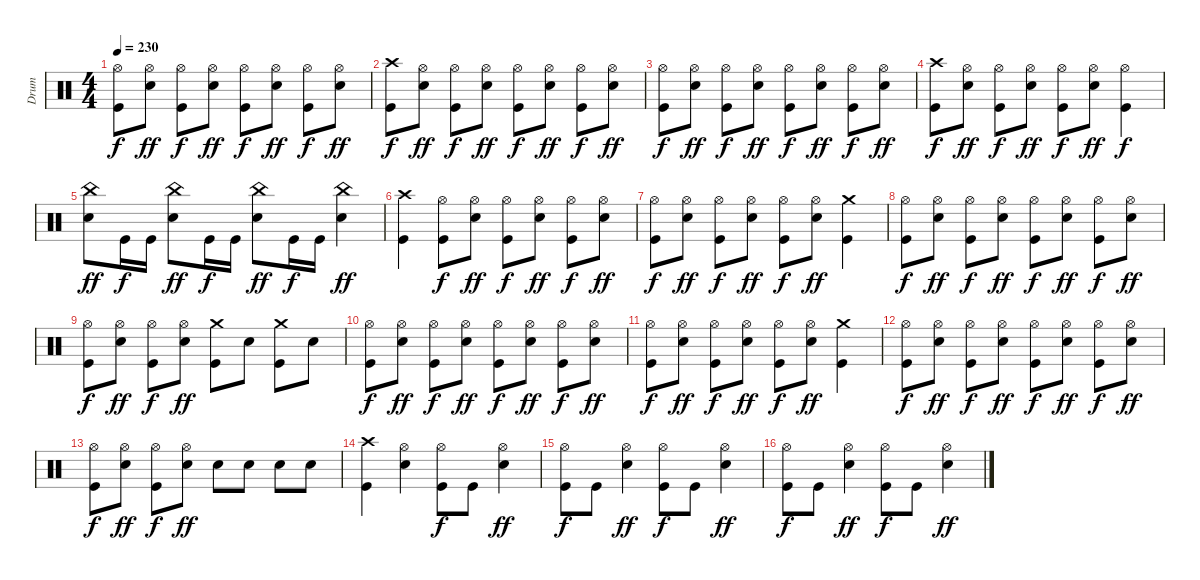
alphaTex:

\track ("Drum" "Drum") {instrument percussion}
\staff {score}
\articulation defaults
\ts (4 4)
\tempo 230
\clef neutral
\ks c
("Kick (hit)" "Hi-Hat (open)").8{dy f} ("Electric Snare (hit)" "Hi-Hat (open)").8{dy ff} ("Kick (hit)" "Hi-Hat (open)").8{dy f} ("Electric Snare (hit)" "Hi-Hat (open)").8{dy ff} ("Kick (hit)" "Hi-Hat (open)").8{dy f} ("Electric Snare (hit)" "Hi-Hat (open)").8{dy ff} ("Kick (hit)" "Hi-Hat (open)").8{dy f} ("Electric Snare (hit)" "Hi-Hat (open)").8{dy ff} |
("Kick (hit)" "Crash high (hit)").8{dy f} ("Electric Snare (hit)" "Hi-Hat (open)").8{dy ff} ("Kick (hit)" "Hi-Hat (open)").8{dy f} ("Electric Snare (hit)" "Hi-Hat (open)").8{dy ff} ("Kick (hit)" "Hi-Hat (open)").8{dy f} ("Electric Snare (hit)" "Hi-Hat (open)").8{dy ff} ("Kick (hit)" "Hi-Hat (open)").8{dy f} ("Electric Snare (hit)" "Hi-Hat (open)").8{dy ff} |
("Kick (hit)" "Hi-Hat (open)").8{dy f} ("Electric Snare (hit)" "Hi-Hat (open)").8{dy ff} ("Kick (hit)" "Hi-Hat (open)").8{dy f} ("Electric Snare (hit)" "Hi-Hat (open)").8{dy ff} ("Kick (hit)" "Hi-Hat (open)").8{dy f} ("Electric Snare (hit)" "Hi-Hat (open)").8{dy ff} ("Kick (hit)" "Hi-Hat (open)").8{dy f} ("Electric Snare (hit)" "Hi-Hat (open)").8{dy ff} |
("Kick (hit)" "Crash high (hit)").8{dy f} ("Electric Snare (hit)" "Hi-Hat (open)").8{dy ff} ("Kick (hit)" "Hi-Hat (open)").8{dy f} ("Electric Snare (hit)" "Hi-Hat (open)").8{dy ff} ("Kick (hit)" "Hi-Hat (open)").8{dy f} ("Electric Snare (hit)" "Hi-Hat (open)").8{dy ff} ("Kick (hit)" "Hi-Hat (open)").4{dy f} |
("Electric Snare (hit)" "China (hit)").8{dy ff} "Kick (hit)".16{dy f} "Kick (hit)".16 ("Electric Snare (hit)" "China (hit)").8{dy ff} "Kick (hit)".16{dy f} "Kick (hit)".16 ("Electric Snare (hit)" "China (hit)").8{dy ff} "Kick (hit)".16{dy f} "Kick (hit)".16 ("Electric Snare (hit)" "China (hit)").4{dy ff} |
("Kick (hit)" "Crash high (hit)").4 ("Kick (hit)" "Hi-Hat (open)").8{dy f} ("Electric Snare (hit)" "Hi-Hat (open)").8{dy ff} ("Kick (hit)" "Hi-Hat (open)").8{dy f} ("Electric Snare (hit)" "Hi-Hat (open)").8{dy ff} ("Kick (hit)" "Hi-Hat (open)").8{dy f} ("Electric Snare (hit)" "Hi-Hat (open)").8{dy ff} |
("Kick (hit)" "Hi-Hat (open)").8{dy f} ("Electric Snare (hit)" "Hi-Hat (open)").8{dy ff} ("Kick (hit)" "Hi-Hat (open)").8{dy f} ("Electric Snare (hit)" "Hi-Hat (open)").8{dy ff} ("Kick (hit)" "Hi-Hat (open)").8{dy f} ("Electric Snare (hit)" "Hi-Hat (open)").8{dy ff} ("Kick (hit)" "Crash medium (hit)").4 |
("Kick (hit)" "Hi-Hat (open)").8{dy f} ("Electric Snare (hit)" "Hi-Hat (open)").8{dy ff} ("Kick (hit)" "Hi-Hat (open)").8{dy f} ("Electric Snare (hit)" "Hi-Hat (open)").8{dy ff} ("Kick (hit)" "Hi-Hat (open)").8{dy f} ("Electric Snare (hit)" "Hi-Hat (open)").8{dy ff} ("Kick (hit)" "Hi-Hat (open)").8{dy f} ("Electric Snare (hit)" "Hi-Hat (open)").8{dy ff} |
("Kick (hit)" "Hi-Hat (open)").8{dy f} ("Electric Snare (hit)" "Hi-Hat (open)").8{dy ff} ("Kick (hit)" "Hi-Hat (open)").8{dy f} ("Electric Snare (hit)" "Hi-Hat (open)").8{dy ff} ("Kick (hit)" "Crash medium (hit)").8 "Electric Snare (hit)".8 ("Kick (hit)" "Crash medium (hit)").8 "Electric Snare (hit)".8 |
("Kick (hit)" "Hi-Hat (open)").8{dy f} ("Electric Snare (hit)" "Hi-Hat (open)").8{dy ff} ("Kick (hit)" "Hi-Hat (open)").8{dy f} ("Electric Snare (hit)" "Hi-Hat (open)").8{dy ff} ("Kick (hit)" "Hi-Hat (open)").8{dy f} ("Electric Snare (hit)" "Hi-Hat (open)").8{dy ff} ("Kick (hit)" "Hi-Hat (open)").8{dy f} ("Electric Snare (hit)" "Hi-Hat (open)").8{dy ff} |
("Kick (hit)" "Hi-Hat (open)").8{dy f} ("Electric Snare (hit)" "Hi-Hat (open)").8{dy ff} ("Kick (hit)" "Hi-Hat (open)").8{dy f} ("Electric Snare (hit)" "Hi-Hat (open)").8{dy ff} ("Kick (hit)" "Hi-Hat (open)").8{dy f} ("Electric Snare (hit)" "Hi-Hat (open)").8{dy ff} ("Kick (hit)" "Crash medium (hit)").4 |
("Kick (hit)" "Hi-Hat (open)").8{dy f} ("Electric Snare (hit)" "Hi-Hat (open)").8{dy ff} ("Kick (hit)" "Hi-Hat (open)").8{dy f} ("Electric Snare (hit)" "Hi-Hat (open)").8{dy ff} ("Kick (hit)" "Hi-Hat (open)").8{dy f} ("Electric Snare (hit)" "Hi-Hat (open)").8{dy ff} ("Kick (hit)" "Hi-Hat (open)").8{dy f} ("Electric Snare (hit)" "Hi-Hat (open)").8{dy ff} |
("Kick (hit)" "Hi-Hat (open)").8{dy f} ("Electric Snare (hit)" "Hi-Hat (open)").8{dy ff} ("Kick (hit)" "Hi-Hat (open)").8{dy f} ("Electric Snare (hit)" "Hi-Hat (open)").8{dy ff} "Electric Snare (hit)".8 "Electric Snare (hit)".8 "Electric Snare (hit)".8 "Electric Snare (hit)".8 |
("Kick (hit)" "Crash high (hit)").4 ("Electric Snare (hit)" "Hi-Hat (open)").4 ("Kick (hit)" "Hi-Hat (open)").8{dy f} "Kick (hit)".8 ("Electric Snare (hit)" "Hi-Hat (open)").4{dy ff} |
("Kick (hit)" "Hi-Hat (open)").8{dy f} "Kick (hit)".8 ("Electric Snare (hit)" "Hi-Hat (open)").4{dy ff} ("Kick (hit)" "Hi-Hat (open)").8{dy f} "Kick (hit)".8 ("Electric Snare (hit)" "Hi-Hat (open)").4{dy ff} |
("Kick (hit)" "Hi-Hat (open)").8{dy f} "Kick (hit)".8 ("Electric Snare (hit)" "Hi-Hat (open)").4{dy ff} ("Kick (hit)" "Hi-Hat (open)").8{dy f} "Kick (hit)".8 ("Electric Snare (hit)" "Hi-Hat (open)").4{dy ff}
